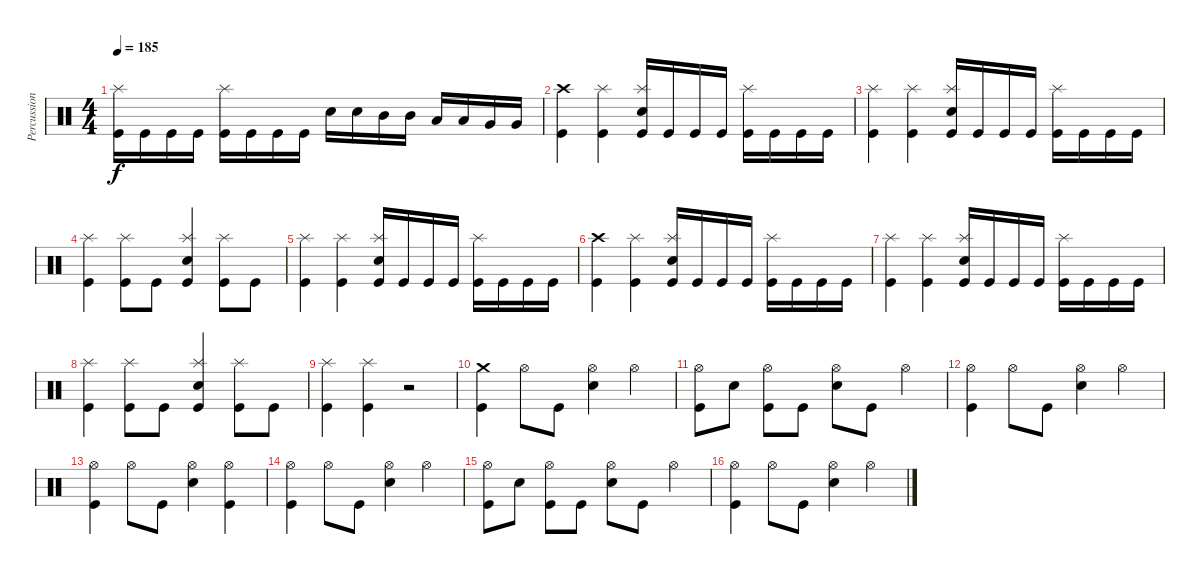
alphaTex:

\track ("Percussions" "Percussion") {instrument percussion}
\staff {score}
\articulation defaults
\ts (4 4)
\tempo 185
\clef neutral
\ks c
("Kick (hit)" "Splash (hit)").16{dy f} "Kick (hit)".16 "Kick (hit)".16 "Kick (hit)".16 ("Kick (hit)" "Splash (hit)").16 "Kick (hit)".16 "Kick (hit)".16 "Kick (hit)".16 "Electric Snare (hit)".16 "Electric Snare (hit)".16 "Mid Tom (hit)".16 "Mid Tom (hit)".16 "Low Tom (hit)".16 "Low Tom (hit)".16 "Very Low Tom (hit)".16 "Very Low Tom (hit)".16 |
("Kick (hit)" "Crash high (hit)").4 ("Kick (hit)" "Splash (hit)").4 ("Kick (hit)" "Electric Snare (hit)" "Splash (hit)").16 "Kick (hit)".16 "Kick (hit)".16 "Kick (hit)".16 ("Kick (hit)" "Splash (hit)").16 "Kick (hit)".16 "Kick (hit)".16 "Kick (hit)".16 |
("Kick (hit)" "Splash (hit)").4 ("Kick (hit)" "Splash (hit)").4 ("Kick (hit)" "Electric Snare (hit)" "Splash (hit)").16 "Kick (hit)".16 "Kick (hit)".16 "Kick (hit)".16 ("Kick (hit)" "Splash (hit)").16 "Kick (hit)".16 "Kick (hit)".16 "Kick (hit)".16 |
("Kick (hit)" "Splash (hit)").4 ("Kick (hit)" "Splash (hit)").8 "Kick (hit)".8 ("Kick (hit)" "Electric Snare (hit)" "Splash (hit)").4 ("Kick (hit)" "Splash (hit)").8 "Kick (hit)".8 |
("Kick (hit)" "Splash (hit)").4 ("Kick (hit)" "Splash (hit)").4 ("Kick (hit)" "Electric Snare (hit)" "Splash (hit)").16 "Kick (hit)".16 "Kick (hit)".16 "Kick (hit)".16 ("Kick (hit)" "Splash (hit)").16 "Kick (hit)".16 "Kick (hit)".16 "Kick (hit)".16 |
("Kick (hit)" "Crash high (hit)").4 ("Kick (hit)" "Splash (hit)").4 ("Kick (hit)" "Electric Snare (hit)" "Splash (hit)").16 "Kick (hit)".16 "Kick (hit)".16 "Kick (hit)".16 ("Kick (hit)" "Splash (hit)").16 "Kick (hit)".16 "Kick (hit)".16 "Kick (hit)".16 |
("Kick (hit)" "Splash (hit)").4 ("Kick (hit)" "Splash (hit)").4 ("Kick (hit)" "Electric Snare (hit)" "Splash (hit)").16 "Kick (hit)".16 "Kick (hit)".16 "Kick (hit)".16 ("Kick (hit)" "Splash (hit)").16 "Kick (hit)".16 "Kick (hit)".16 "Kick (hit)".16 |
("Kick (hit)" "Splash (hit)").4 ("Kick (hit)" "Splash (hit)").8 "Kick (hit)".8 ("Kick (hit)" "Electric Snare (hit)" "Splash (hit)").4 ("Kick (hit)" "Splash (hit)").8 "Kick (hit)".8 |
("Kick (hit)" "Splash (hit)").4 ("Kick (hit)" "Splash (hit)").4 r.2 |
("Kick (hit)" "Crash medium (hit)").4 "Hi-Hat (open)".8 "Kick (hit)".8 ("Electric Snare (hit)" "Hi-Hat (open)").4 "Hi-Hat (open)".4 |
("Kick (hit)" "Hi-Hat (open)").8 "Electric Snare (hit)".8 ("Kick (hit)" "Hi-Hat (open)").8 "Kick (hit)".8 ("Electric Snare (hit)" "Hi-Hat (open)").8 "Kick (hit)".8 "Hi-Hat (open)".4 |
("Kick (hit)" "Hi-Hat (open)").4 "Hi-Hat (open)".8 "Kick (hit)".8 ("Electric Snare (hit)" "Hi-Hat (open)").4 "Hi-Hat (open)".4 |
("Kick (hit)" "Hi-Hat (open)").4 "Hi-Hat (open)".8 "Kick (hit)".8 ("Electric Snare (hit)" "Hi-Hat (open)").4 ("Kick (hit)" "Hi-Hat (open)").4 |
("Kick (hit)" "Hi-Hat (open)").4 "Hi-Hat (open)".8 "Kick (hit)".8 ("Electric Snare (hit)" "Hi-Hat (open)").4 "Hi-Hat (open)".4 |
("Kick (hit)" "Hi-Hat (open)").8 "Electric Snare (hit)".8 ("Kick (hit)" "Hi-Hat (open)").8 "Kick (hit)".8 ("Electric Snare (hit)" "Hi-Hat (open)").8 "Kick (hit)".8 "Hi-Hat (open)".4 |
("Kick (hit)" "Hi-Hat (open)").4 "Hi-Hat (open)".8 "Kick (hit)".8 ("Electric Snare (hit)" "Hi-Hat (open)").4 "Hi-Hat (open)".4
